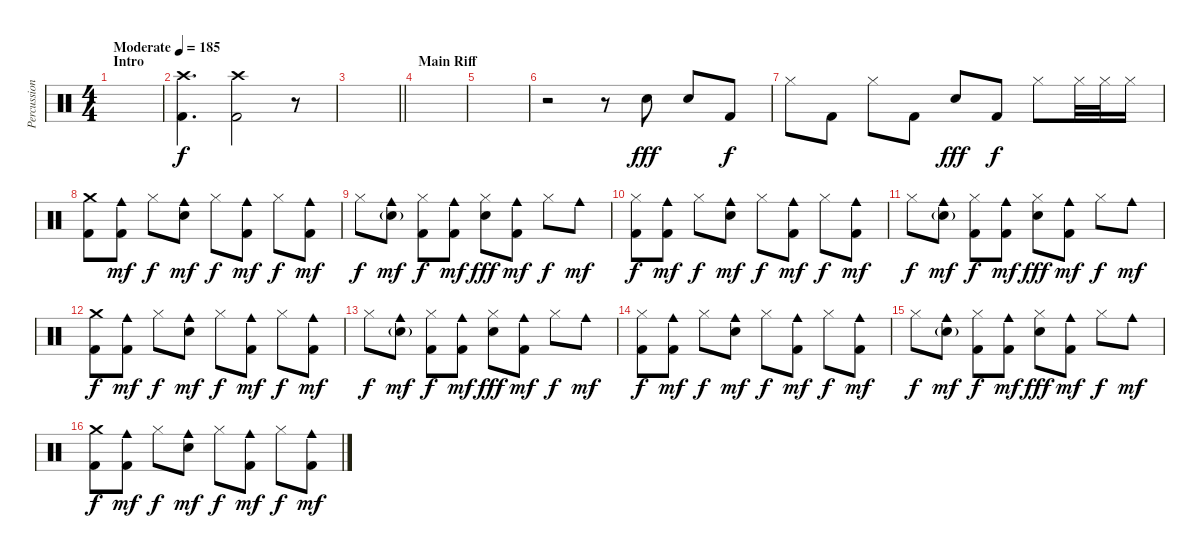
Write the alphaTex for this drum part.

\track ("Percussions" "Percussion") {instrument percussion}
\staff {score}
\articulation defaults
\ts (4 4)
\section ("" "Intro")
\tempo (185 "Moderate")
\clef neutral
\ks c
|
("Crash high (hit)" "Kick (hit) 2").4{d} ("Crash high (hit)" "Kick (hit) 2").2 r.8 |
\barLineRight lightlight
|
\section ("" "Main Riff")
|
|
r.2 r.8 "Electric Snare (hit)".8{dy fff} "Electric Snare (hit)".8 "Kick (hit) 2".8{dy f} |
"Hi-Hat (closed)".8 "Kick (hit) 2".8 "Hi-Hat (closed)".8 "Kick (hit) 2".8 "Electric Snare (hit)".8{dy fff} "Kick (hit) 2".8{dy f} "Hi-Hat (closed)".8 "Hi-Hat (closed)".32 "Hi-Hat (closed)".32 "Hi-Hat (closed)".16 |
("Crash medium (hit)" "Kick (hit) 2").8 ("Kick (hit) 2" "Cowbell medium (hit)").8{dy mf} "Hi-Hat (closed)".8{dy f} ("Electric Snare (hit)" "Cowbell medium (hit)").8{dy mf} "Hi-Hat (closed)".8{dy f} ("Kick (hit) 2" "Cowbell medium (hit)").8{dy mf} "Hi-Hat (closed)".8{dy f} ("Kick (hit) 2" "Cowbell medium (hit)").8{dy mf} |
"Hi-Hat (closed)".8{dy f} ("Electric Snare (hit)"{g} "Cowbell medium (hit)").8{dy mf} ("Kick (hit) 2" "Hi-Hat (closed)").8{dy f} ("Kick (hit) 2" "Cowbell medium (hit)").8{dy mf} ("Electric Snare (hit)" "Hi-Hat (closed)").8{dy fff} ("Kick (hit) 2" "Cowbell medium (hit)").8{dy mf} "Hi-Hat (closed)".8{dy f} "Cowbell medium (hit)".8{dy mf} |
("Kick (hit) 2" "Hi-Hat (closed)").8{dy f} ("Kick (hit) 2" "Cowbell medium (hit)").8{dy mf} "Hi-Hat (closed)".8{dy f} ("Electric Snare (hit)" "Cowbell medium (hit)").8{dy mf} "Hi-Hat (closed)".8{dy f} ("Kick (hit) 2" "Cowbell medium (hit)").8{dy mf} "Hi-Hat (closed)".8{dy f} ("Kick (hit) 2" "Cowbell medium (hit)").8{dy mf} |
"Hi-Hat (closed)".8{dy f} ("Electric Snare (hit)"{g} "Cowbell medium (hit)").8{dy mf} ("Kick (hit) 2" "Hi-Hat (closed)").8{dy f} ("Kick (hit) 2" "Cowbell medium (hit)").8{dy mf} ("Electric Snare (hit)" "Hi-Hat (closed)").8{dy fff} ("Kick (hit) 2" "Cowbell medium (hit)").8{dy mf} "Hi-Hat (closed)".8{dy f} "Cowbell medium (hit)".8{dy mf} |
("Crash medium (hit)" "Kick (hit) 2").8{dy f} ("Kick (hit) 2" "Cowbell medium (hit)").8{dy mf} "Hi-Hat (closed)".8{dy f} ("Electric Snare (hit)" "Cowbell medium (hit)").8{dy mf} "Hi-Hat (closed)".8{dy f} ("Kick (hit) 2" "Cowbell medium (hit)").8{dy mf} "Hi-Hat (closed)".8{dy f} ("Kick (hit) 2" "Cowbell medium (hit)").8{dy mf} |
"Hi-Hat (closed)".8{dy f} ("Electric Snare (hit)"{g} "Cowbell medium (hit)").8{dy mf} ("Kick (hit) 2" "Hi-Hat (closed)").8{dy f} ("Kick (hit) 2" "Cowbell medium (hit)").8{dy mf} ("Electric Snare (hit)" "Hi-Hat (closed)").8{dy fff} ("Kick (hit) 2" "Cowbell medium (hit)").8{dy mf} "Hi-Hat (closed)".8{dy f} "Cowbell medium (hit)".8{dy mf} |
("Kick (hit) 2" "Hi-Hat (closed)").8{dy f} ("Kick (hit) 2" "Cowbell medium (hit)").8{dy mf} "Hi-Hat (closed)".8{dy f} ("Electric Snare (hit)" "Cowbell medium (hit)").8{dy mf} "Hi-Hat (closed)".8{dy f} ("Kick (hit) 2" "Cowbell medium (hit)").8{dy mf} "Hi-Hat (closed)".8{dy f} ("Kick (hit) 2" "Cowbell medium (hit)").8{dy mf} |
"Hi-Hat (closed)".8{dy f} ("Electric Snare (hit)"{g} "Cowbell medium (hit)").8{dy mf} ("Kick (hit) 2" "Hi-Hat (closed)").8{dy f} ("Kick (hit) 2" "Cowbell medium (hit)").8{dy mf} ("Electric Snare (hit)" "Hi-Hat (closed)").8{dy fff} ("Kick (hit) 2" "Cowbell medium (hit)").8{dy mf} "Hi-Hat (closed)".8{dy f} "Cowbell medium (hit)".8{dy mf} |
("Crash medium (hit)" "Kick (hit) 2").8{dy f} ("Kick (hit) 2" "Cowbell medium (hit)").8{dy mf} "Hi-Hat (closed)".8{dy f} ("Electric Snare (hit)" "Cowbell medium (hit)").8{dy mf} "Hi-Hat (closed)".8{dy f} ("Kick (hit) 2" "Cowbell medium (hit)").8{dy mf} "Hi-Hat (closed)".8{dy f} ("Kick (hit) 2" "Cowbell medium (hit)").8{dy mf}
